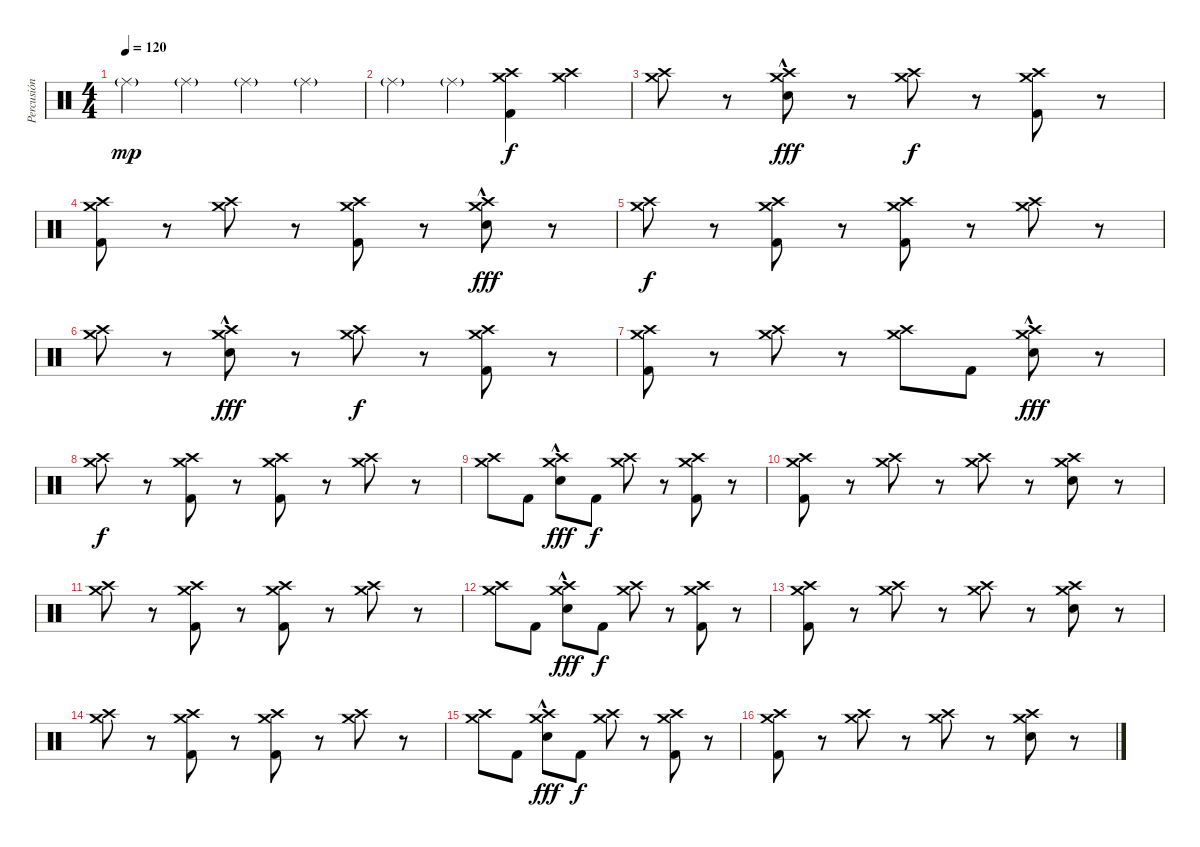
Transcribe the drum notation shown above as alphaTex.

\track ("Percusión" "Percusión") {instrument percussion}
\staff {score}
\articulation defaults
\ts (4 4)
\tempo 120
\clef neutral
\ks c "Ride (middle)"{g}.4{dy mp} "Ride (middle)"{g}.4 "Ride (middle)"{g}.4 "Ride (middle)"{g}.4
|
"Ride (middle)"{g}.4 "Ride (middle)"{g}.4 ("Crash high (hit)" "Crash medium (hit)" "Kick (hit) 2").4{dy f} ("Crash medium (hit)" "Crash high (hit)").4 |
("Crash high (hit)" "Crash medium (hit)").8 r.8 ("Crash high (hit)" "Crash medium (hit)" "Snare (hit) 2"{hac}).8{dy fff} r.8 ("Crash high (hit)" "Crash medium (hit)").8{dy f} r.8 ("Crash high (hit)" "Crash medium (hit)" "Kick (hit) 2").8 r.8 |
("Crash high (hit)" "Crash medium (hit)" "Kick (hit) 2").8 r.8 ("Crash high (hit)" "Crash medium (hit)").8 r.8 ("Crash high (hit)" "Crash medium (hit)" "Kick (hit) 2").8 r.8 ("Crash high (hit)" "Crash medium (hit)" "Snare (hit) 2"{hac}).8{dy fff} r.8 |
("Crash high (hit)" "Crash medium (hit)").8{dy f} r.8 ("Crash high (hit)" "Crash medium (hit)" "Kick (hit) 2").8 r.8 ("Crash high (hit)" "Crash medium (hit)" "Kick (hit) 2").8 r.8 ("Crash high (hit)" "Crash medium (hit)").8 r.8 |
("Crash medium (hit)" "Crash high (hit)").8 r.8 ("Crash high (hit)" "Crash medium (hit)" "Snare (hit) 2"{hac}).8{dy fff} r.8 ("Crash high (hit)" "Crash medium (hit)").8{dy f} r.8 ("Crash high (hit)" "Crash medium (hit)" "Kick (hit) 2").8 r.8 |
("Crash high (hit)" "Crash medium (hit)" "Kick (hit) 2").8 r.8 ("Crash high (hit)" "Crash medium (hit)").8 r.8 ("Crash high (hit)" "Crash medium (hit)").8 "Kick (hit) 2".8 ("Crash high (hit)" "Crash medium (hit)" "Snare (hit) 2"{hac}).8{dy fff} r.8 |
("Crash high (hit)" "Crash medium (hit)").8{dy f} r.8 ("Crash high (hit)" "Crash medium (hit)" "Kick (hit) 2").8 r.8 ("Crash high (hit)" "Crash medium (hit)" "Kick (hit) 2").8 r.8 ("Crash high (hit)" "Crash medium (hit)").8 r.8 |
("Crash high (hit)" "Crash medium (hit)").8 "Kick (hit) 2".8 ("Crash medium (hit)" "Crash high (hit)" "Snare (hit) 2"{hac}).8{dy fff} "Kick (hit) 2".8{dy f} ("Crash medium (hit)" "Crash high (hit)").8 r.8 ("Crash medium (hit)" "Crash high (hit)" "Kick (hit) 2").8 r.8 |
("Crash medium (hit)" "Crash high (hit)" "Kick (hit) 2").8 r.8 ("Crash medium (hit)" "Crash high (hit)").8 r.8 ("Crash medium (hit)" "Crash high (hit)").8 r.8 ("Crash medium (hit)" "Crash high (hit)" "Snare (hit) 2").8 r.8 |
("Crash high (hit)" "Crash medium (hit)").8 r.8 ("Crash high (hit)" "Crash medium (hit)" "Kick (hit) 2").8 r.8 ("Crash high (hit)" "Crash medium (hit)" "Kick (hit) 2").8 r.8 ("Crash high (hit)" "Crash medium (hit)").8 r.8 |
("Crash high (hit)" "Crash medium (hit)").8 "Kick (hit) 2".8 ("Crash medium (hit)" "Crash high (hit)" "Snare (hit) 2"{hac}).8{dy fff} "Kick (hit) 2".8{dy f} ("Crash medium (hit)" "Crash high (hit)").8 r.8 ("Crash medium (hit)" "Crash high (hit)" "Kick (hit) 2").8 r.8 |
("Crash medium (hit)" "Crash high (hit)" "Kick (hit) 2").8 r.8 ("Crash medium (hit)" "Crash high (hit)").8 r.8 ("Crash medium (hit)" "Crash high (hit)").8 r.8 ("Crash medium (hit)" "Crash high (hit)" "Snare (hit) 2").8 r.8 |
("Crash high (hit)" "Crash medium (hit)").8 r.8 ("Crash high (hit)" "Crash medium (hit)" "Kick (hit) 2").8 r.8 ("Crash high (hit)" "Crash medium (hit)" "Kick (hit) 2").8 r.8 ("Crash high (hit)" "Crash medium (hit)").8 r.8 |
("Crash high (hit)" "Crash medium (hit)").8 "Kick (hit) 2".8 ("Crash medium (hit)" "Crash high (hit)" "Snare (hit) 2"{hac}).8{dy fff} "Kick (hit) 2".8{dy f} ("Crash medium (hit)" "Crash high (hit)").8 r.8 ("Crash medium (hit)" "Crash high (hit)" "Kick (hit) 2").8 r.8 |
("Crash medium (hit)" "Crash high (hit)" "Kick (hit) 2").8 r.8 ("Crash medium (hit)" "Crash high (hit)").8 r.8 ("Crash medium (hit)" "Crash high (hit)").8 r.8 ("Crash medium (hit)" "Crash high (hit)" "Snare (hit) 2").8 r.8
